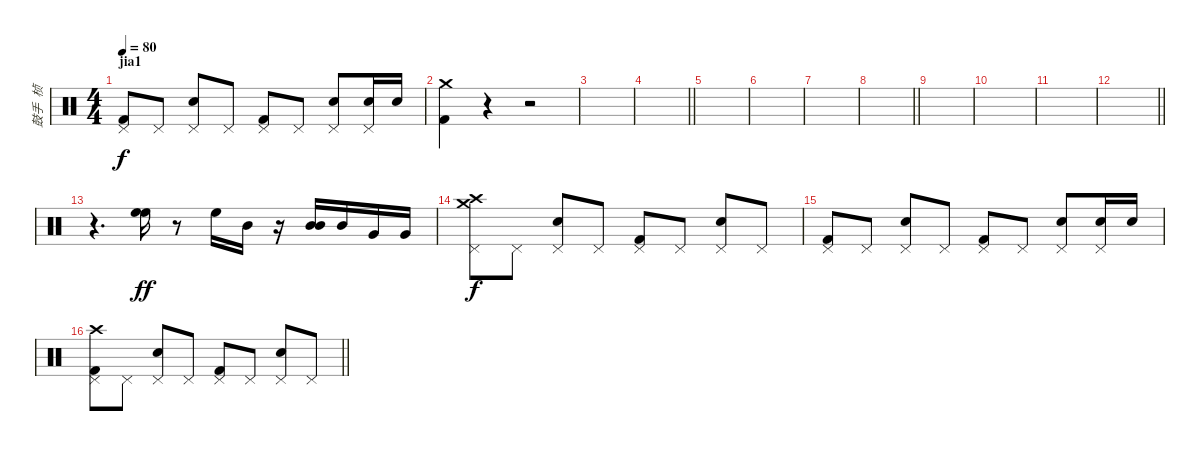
\track ("鼓手  桢" "鼓手  桢") {instrument percussion}
\staff {score}
\articulation defaults
\ts (4 4)
\section ("" "jia1")
\tempo 80
\clef neutral
\ks c
("Pedal Hi-Hat (hit)" "Kick (hit) 2").8{dy f} "Pedal Hi-Hat (hit)".8 ("Pedal Hi-Hat (hit)" "Snare (hit) 2").8 "Pedal Hi-Hat (hit)".8 ("Pedal Hi-Hat (hit)" "Kick (hit) 2").8 "Pedal Hi-Hat (hit)".8 ("Pedal Hi-Hat (hit)" "Snare (hit) 2").8 ("Pedal Hi-Hat (hit)" "Snare (hit) 2").16 "Snare (hit) 2".16 |
("Crash medium (hit)" "Kick (hit) 2").4 r.4 r.2 |
|
\barLineRight lightlight
|
|
|
|
\barLineRight lightlight
|
|
|
|
\barLineRight lightlight
|
r.4{d} ("High Floor Tom (hit)" "High Floor Tom (hit)").16{dy ff} r.8 "High Floor Tom (hit)".16 "Mid Tom (hit)".16 r.16 ("Mid Tom (hit)" "Mid Tom (hit)").16 "Mid Tom (hit)".16 "Very Low Tom (hit)".16 "Very Low Tom (hit)".16 |
("Pedal Hi-Hat (hit)" "Crash medium (hit)" "Crash high (hit)").8{dy f} "Pedal Hi-Hat (hit)".8 ("Pedal Hi-Hat (hit)" "Snare (hit) 2").8 "Pedal Hi-Hat (hit)".8 ("Pedal Hi-Hat (hit)" "Kick (hit) 2").8 "Pedal Hi-Hat (hit)".8 ("Pedal Hi-Hat (hit)" "Snare (hit) 2").8 "Pedal Hi-Hat (hit)".8 |
("Pedal Hi-Hat (hit)" "Kick (hit) 2").8 "Pedal Hi-Hat (hit)".8 ("Pedal Hi-Hat (hit)" "Snare (hit) 2").8 "Pedal Hi-Hat (hit)".8 ("Pedal Hi-Hat (hit)" "Kick (hit) 2").8 "Pedal Hi-Hat (hit)".8 ("Pedal Hi-Hat (hit)" "Snare (hit) 2").8 ("Pedal Hi-Hat (hit)" "Snare (hit) 2").16 "Snare (hit) 2".16 |
\barLineRight lightlight
("Pedal Hi-Hat (hit)" "Kick (hit) 2" "Crash high (hit)").8 "Pedal Hi-Hat (hit)".8 ("Pedal Hi-Hat (hit)" "Snare (hit) 2").8 "Pedal Hi-Hat (hit)".8 ("Pedal Hi-Hat (hit)" "Kick (hit) 2").8 "Pedal Hi-Hat (hit)".8 ("Pedal Hi-Hat (hit)" "Snare (hit) 2").8 "Pedal Hi-Hat (hit)".8
